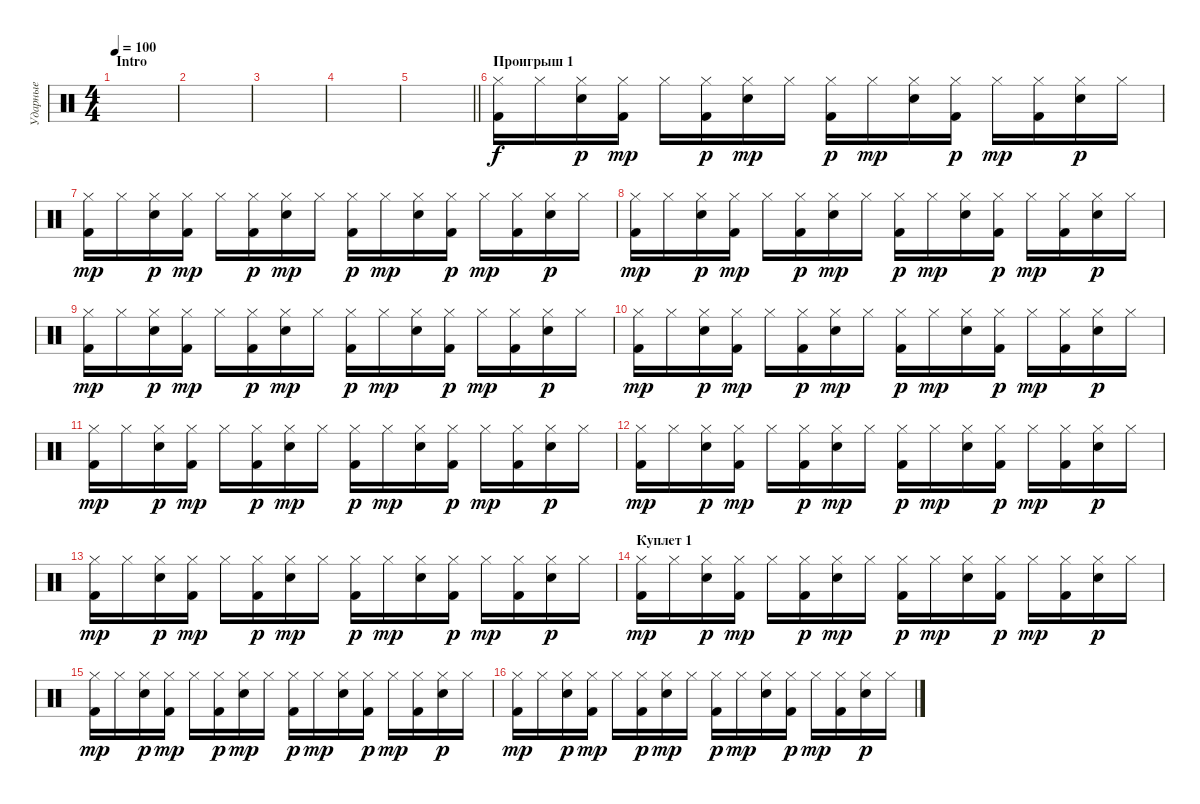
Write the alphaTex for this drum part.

\track ("Ударные" "Ударные") {instrument percussion}
\staff {score}
\articulation defaults
\ts (4 4)
\section ("" "Intro")
\tempo 100
\clef neutral
\ks c
|
|
|
|
\barLineRight lightlight
|
\section ("" "Проигрыш 1")
("Hi-Hat (closed)" "Kick (hit) 2").16 "Hi-Hat (closed)".16 ("Hi-Hat (closed)" "Electric Snare (hit)").16{dy p} ("Hi-Hat (closed)" "Kick (hit) 2").16{dy mp} "Hi-Hat (closed)".16 ("Hi-Hat (closed)" "Kick (hit) 2").16{dy p} ("Hi-Hat (closed)" "Electric Snare (hit)").16{dy mp} "Hi-Hat (closed)".16 ("Hi-Hat (closed)" "Kick (hit) 2").16{dy p} "Hi-Hat (closed)".16{dy mp} ("Hi-Hat (closed)" "Electric Snare (hit)").16 ("Hi-Hat (closed)" "Kick (hit) 2").16{dy p} "Hi-Hat (closed)".16{dy mp} ("Hi-Hat (closed)" "Kick (hit) 2").16 ("Hi-Hat (closed)" "Electric Snare (hit)").16{dy p} "Hi-Hat (closed)".16 |
("Hi-Hat (closed)" "Kick (hit) 2").16{dy mp} "Hi-Hat (closed)".16 ("Hi-Hat (closed)" "Electric Snare (hit)").16{dy p} ("Hi-Hat (closed)" "Kick (hit) 2").16{dy mp} "Hi-Hat (closed)".16 ("Hi-Hat (closed)" "Kick (hit) 2").16{dy p} ("Hi-Hat (closed)" "Electric Snare (hit)").16{dy mp} "Hi-Hat (closed)".16 ("Hi-Hat (closed)" "Kick (hit) 2").16{dy p} "Hi-Hat (closed)".16{dy mp} ("Hi-Hat (closed)" "Electric Snare (hit)").16 ("Hi-Hat (closed)" "Kick (hit) 2").16{dy p} "Hi-Hat (closed)".16{dy mp} ("Hi-Hat (closed)" "Kick (hit) 2").16 ("Hi-Hat (closed)" "Electric Snare (hit)").16{dy p} "Hi-Hat (closed)".16 |
("Hi-Hat (closed)" "Kick (hit) 2").16{dy mp} "Hi-Hat (closed)".16 ("Hi-Hat (closed)" "Electric Snare (hit)").16{dy p} ("Hi-Hat (closed)" "Kick (hit) 2").16{dy mp} "Hi-Hat (closed)".16 ("Hi-Hat (closed)" "Kick (hit) 2").16{dy p} ("Hi-Hat (closed)" "Electric Snare (hit)").16{dy mp} "Hi-Hat (closed)".16 ("Hi-Hat (closed)" "Kick (hit) 2").16{dy p} "Hi-Hat (closed)".16{dy mp} ("Hi-Hat (closed)" "Electric Snare (hit)").16 ("Hi-Hat (closed)" "Kick (hit) 2").16{dy p} "Hi-Hat (closed)".16{dy mp} ("Hi-Hat (closed)" "Kick (hit) 2").16 ("Hi-Hat (closed)" "Electric Snare (hit)").16{dy p} "Hi-Hat (closed)".16 |
("Hi-Hat (closed)" "Kick (hit) 2").16{dy mp} "Hi-Hat (closed)".16 ("Hi-Hat (closed)" "Electric Snare (hit)").16{dy p} ("Hi-Hat (closed)" "Kick (hit) 2").16{dy mp} "Hi-Hat (closed)".16 ("Hi-Hat (closed)" "Kick (hit) 2").16{dy p} ("Hi-Hat (closed)" "Electric Snare (hit)").16{dy mp} "Hi-Hat (closed)".16 ("Hi-Hat (closed)" "Kick (hit) 2").16{dy p} "Hi-Hat (closed)".16{dy mp} ("Hi-Hat (closed)" "Electric Snare (hit)").16 ("Hi-Hat (closed)" "Kick (hit) 2").16{dy p} "Hi-Hat (closed)".16{dy mp} ("Hi-Hat (closed)" "Kick (hit) 2").16 ("Hi-Hat (closed)" "Electric Snare (hit)").16{dy p} "Hi-Hat (closed)".16 |
("Hi-Hat (closed)" "Kick (hit) 2").16{dy mp} "Hi-Hat (closed)".16 ("Hi-Hat (closed)" "Electric Snare (hit)").16{dy p} ("Hi-Hat (closed)" "Kick (hit) 2").16{dy mp} "Hi-Hat (closed)".16 ("Hi-Hat (closed)" "Kick (hit) 2").16{dy p} ("Hi-Hat (closed)" "Electric Snare (hit)").16{dy mp} "Hi-Hat (closed)".16 ("Hi-Hat (closed)" "Kick (hit) 2").16{dy p} "Hi-Hat (closed)".16{dy mp} ("Hi-Hat (closed)" "Electric Snare (hit)").16 ("Hi-Hat (closed)" "Kick (hit) 2").16{dy p} "Hi-Hat (closed)".16{dy mp} ("Hi-Hat (closed)" "Kick (hit) 2").16 ("Hi-Hat (closed)" "Electric Snare (hit)").16{dy p} "Hi-Hat (closed)".16 |
("Hi-Hat (closed)" "Kick (hit) 2").16{dy mp} "Hi-Hat (closed)".16 ("Hi-Hat (closed)" "Electric Snare (hit)").16{dy p} ("Hi-Hat (closed)" "Kick (hit) 2").16{dy mp} "Hi-Hat (closed)".16 ("Hi-Hat (closed)" "Kick (hit) 2").16{dy p} ("Hi-Hat (closed)" "Electric Snare (hit)").16{dy mp} "Hi-Hat (closed)".16 ("Hi-Hat (closed)" "Kick (hit) 2").16{dy p} "Hi-Hat (closed)".16{dy mp} ("Hi-Hat (closed)" "Electric Snare (hit)").16 ("Hi-Hat (closed)" "Kick (hit) 2").16{dy p} "Hi-Hat (closed)".16{dy mp} ("Hi-Hat (closed)" "Kick (hit) 2").16 ("Hi-Hat (closed)" "Electric Snare (hit)").16{dy p} "Hi-Hat (closed)".16 |
("Hi-Hat (closed)" "Kick (hit) 2").16{dy mp} "Hi-Hat (closed)".16 ("Hi-Hat (closed)" "Electric Snare (hit)").16{dy p} ("Hi-Hat (closed)" "Kick (hit) 2").16{dy mp} "Hi-Hat (closed)".16 ("Hi-Hat (closed)" "Kick (hit) 2").16{dy p} ("Hi-Hat (closed)" "Electric Snare (hit)").16{dy mp} "Hi-Hat (closed)".16 ("Hi-Hat (closed)" "Kick (hit) 2").16{dy p} "Hi-Hat (closed)".16{dy mp} ("Hi-Hat (closed)" "Electric Snare (hit)").16 ("Hi-Hat (closed)" "Kick (hit) 2").16{dy p} "Hi-Hat (closed)".16{dy mp} ("Hi-Hat (closed)" "Kick (hit) 2").16 ("Hi-Hat (closed)" "Electric Snare (hit)").16{dy p} "Hi-Hat (closed)".16 |
("Hi-Hat (closed)" "Kick (hit) 2").16{dy mp} "Hi-Hat (closed)".16 ("Hi-Hat (closed)" "Electric Snare (hit)").16{dy p} ("Hi-Hat (closed)" "Kick (hit) 2").16{dy mp} "Hi-Hat (closed)".16 ("Hi-Hat (closed)" "Kick (hit) 2").16{dy p} ("Hi-Hat (closed)" "Electric Snare (hit)").16{dy mp} "Hi-Hat (closed)".16 ("Hi-Hat (closed)" "Kick (hit) 2").16{dy p} "Hi-Hat (closed)".16{dy mp} ("Hi-Hat (closed)" "Electric Snare (hit)").16 ("Hi-Hat (closed)" "Kick (hit) 2").16{dy p} "Hi-Hat (closed)".16{dy mp} ("Hi-Hat (closed)" "Kick (hit) 2").16 ("Hi-Hat (closed)" "Electric Snare (hit)").16{dy p} "Hi-Hat (closed)".16 |
\section ("" "Куплет 1")
("Hi-Hat (closed)" "Kick (hit) 2").16{dy mp} "Hi-Hat (closed)".16 ("Hi-Hat (closed)" "Electric Snare (hit)").16{dy p} ("Hi-Hat (closed)" "Kick (hit) 2").16{dy mp} "Hi-Hat (closed)".16 ("Hi-Hat (closed)" "Kick (hit) 2").16{dy p} ("Hi-Hat (closed)" "Electric Snare (hit)").16{dy mp} "Hi-Hat (closed)".16 ("Hi-Hat (closed)" "Kick (hit) 2").16{dy p} "Hi-Hat (closed)".16{dy mp} ("Hi-Hat (closed)" "Electric Snare (hit)").16 ("Hi-Hat (closed)" "Kick (hit) 2").16{dy p} "Hi-Hat (closed)".16{dy mp} ("Hi-Hat (closed)" "Kick (hit) 2").16 ("Hi-Hat (closed)" "Electric Snare (hit)").16{dy p} "Hi-Hat (closed)".16 |
("Hi-Hat (closed)" "Kick (hit) 2").16{dy mp} "Hi-Hat (closed)".16 ("Hi-Hat (closed)" "Electric Snare (hit)").16{dy p} ("Hi-Hat (closed)" "Kick (hit) 2").16{dy mp} "Hi-Hat (closed)".16 ("Hi-Hat (closed)" "Kick (hit) 2").16{dy p} ("Hi-Hat (closed)" "Electric Snare (hit)").16{dy mp} "Hi-Hat (closed)".16 ("Hi-Hat (closed)" "Kick (hit) 2").16{dy p} "Hi-Hat (closed)".16{dy mp} ("Hi-Hat (closed)" "Electric Snare (hit)").16 ("Hi-Hat (closed)" "Kick (hit) 2").16{dy p} "Hi-Hat (closed)".16{dy mp} ("Hi-Hat (closed)" "Kick (hit) 2").16 ("Hi-Hat (closed)" "Electric Snare (hit)").16{dy p} "Hi-Hat (closed)".16 |
("Hi-Hat (closed)" "Kick (hit) 2").16{dy mp} "Hi-Hat (closed)".16 ("Hi-Hat (closed)" "Electric Snare (hit)").16{dy p} ("Hi-Hat (closed)" "Kick (hit) 2").16{dy mp} "Hi-Hat (closed)".16 ("Hi-Hat (closed)" "Kick (hit) 2").16{dy p} ("Hi-Hat (closed)" "Electric Snare (hit)").16{dy mp} "Hi-Hat (closed)".16 ("Hi-Hat (closed)" "Kick (hit) 2").16{dy p} "Hi-Hat (closed)".16{dy mp} ("Hi-Hat (closed)" "Electric Snare (hit)").16 ("Hi-Hat (closed)" "Kick (hit) 2").16{dy p} "Hi-Hat (closed)".16{dy mp} ("Hi-Hat (closed)" "Kick (hit) 2").16 ("Hi-Hat (closed)" "Electric Snare (hit)").16{dy p} "Hi-Hat (closed)".16
